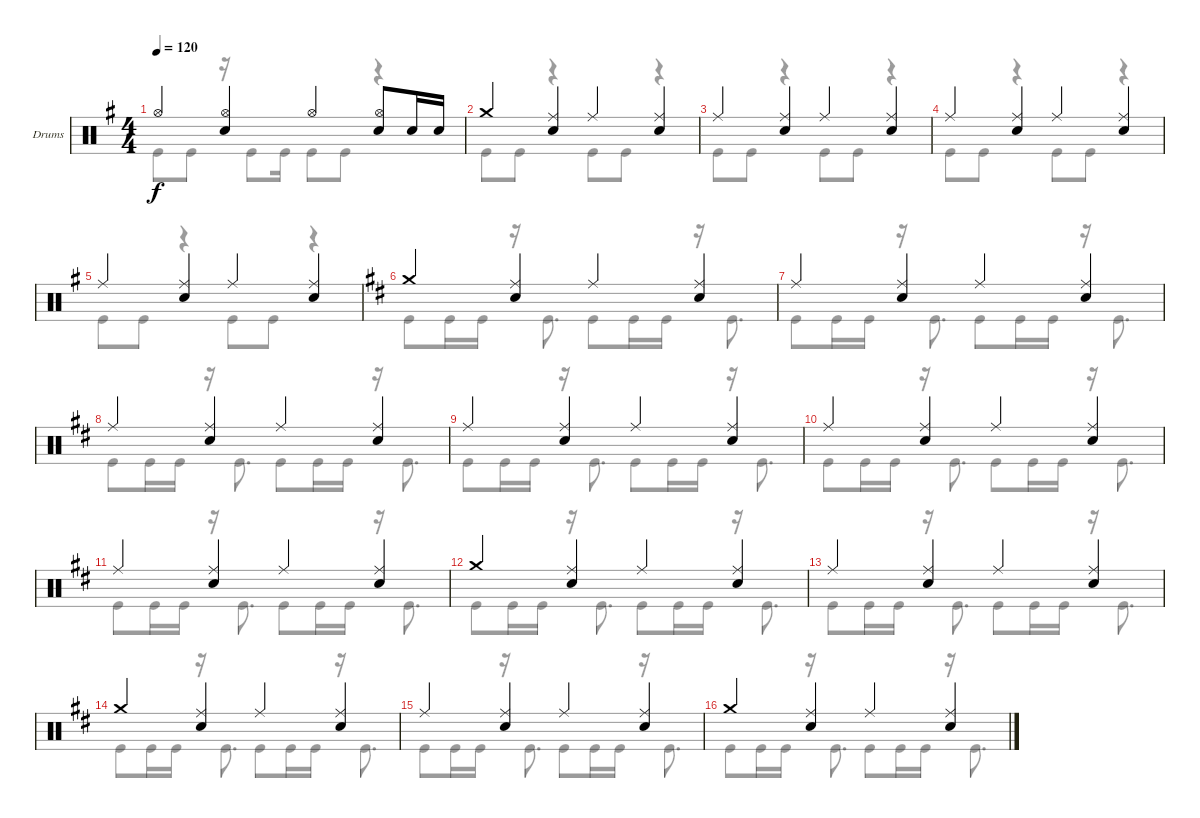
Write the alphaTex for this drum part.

\bracketExtendMode groupsimilarinstruments
\firstSystemTrackNameOrientation horizontal
\otherSystemsTrackNameOrientation horizontal
\track ("Drumkit" "Drums") {mute instrument percussion}
\staff {score}
\articulation defaults
\voice
\ts (4 4)
\tempo 120
\clef neutral
\ks eminor "Hi-Hat (open)".4{dy f}
("Hi-Hat (open)" "Snare (hit) 2").4 "Hi-Hat (open)".4 ("Hi-Hat (open)" "Snare (hit) 2").8 "Snare (hit) 2".16 "Snare (hit) 2".16 |
"Crash medium (hit)".4 ("Ride (middle)" "Snare (hit) 2").4 "Ride (middle)".4 ("Ride (middle)" "Snare (hit) 2").4 |
"Ride (middle)".4 ("Ride (middle)" "Snare (hit) 2").4 "Ride (middle)".4 ("Ride (middle)" "Snare (hit) 2").4 |
"Ride (middle)".4 ("Ride (middle)" "Snare (hit) 2").4 "Ride (middle)".4 ("Ride (middle)" "Snare (hit) 2").4 |
"Ride (middle)".4 ("Ride (middle)" "Snare (hit) 2").4 "Ride (middle)".4 ("Ride (middle)" "Snare (hit) 2").4 |
\ks bminor "Crash medium (hit)".4
("Ride (middle)" "Snare (hit) 2").4 "Ride (middle)".4 ("Ride (middle)" "Snare (hit) 2").4 |
"Ride (middle)".4 ("Ride (middle)" "Snare (hit) 2").4 "Ride (middle)".4 ("Ride (middle)" "Snare (hit) 2").4 |
"Ride (middle)".4 ("Ride (middle)" "Snare (hit) 2").4 "Ride (middle)".4 ("Ride (middle)" "Snare (hit) 2").4 |
"Ride (middle)".4 ("Ride (middle)" "Snare (hit) 2").4 "Ride (middle)".4 ("Ride (middle)" "Snare (hit) 2").4 |
"Ride (middle)".4 ("Ride (middle)" "Snare (hit) 2").4 "Ride (middle)".4 ("Ride (middle)" "Snare (hit) 2").4 |
"Ride (middle)".4 ("Ride (middle)" "Snare (hit) 2").4 "Ride (middle)".4 ("Ride (middle)" "Snare (hit) 2").4 |
"Crash medium (hit)".4 ("Ride (middle)" "Snare (hit) 2").4 "Ride (middle)".4 ("Ride (middle)" "Snare (hit) 2").4 |
"Ride (middle)".4 ("Ride (middle)" "Snare (hit) 2").4 "Ride (middle)".4 ("Ride (middle)" "Snare (hit) 2").4 |
"Crash medium (hit)".4 ("Ride (middle)" "Snare (hit) 2").4 "Ride (middle)".4 ("Ride (middle)" "Snare (hit) 2").4 |
"Ride (middle)".4 ("Ride (middle)" "Snare (hit) 2").4 "Ride (middle)".4 ("Ride (middle)" "Snare (hit) 2").4 |
"Crash medium (hit)".4 ("Ride (middle)" "Snare (hit) 2").4 "Ride (middle)".4 ("Ride (middle)" "Snare (hit) 2").4
\voice
\clef neutral
\ottava regular
\simile none
\ks eminor "Kick (hit)".8{dy f} "Kick (hit)".8
r.16 "Kick (hit)".8 "Kick (hit)".16 "Kick (hit)".8 "Kick (hit)".8 r.4 |
"Kick (hit)".8 "Kick (hit)".8 r.4 "Kick (hit)".8 "Kick (hit)".8 r.4 |
"Kick (hit)".8 "Kick (hit)".8 r.4 "Kick (hit)".8 "Kick (hit)".8 r.4 |
"Kick (hit)".8 "Kick (hit)".8 r.4 "Kick (hit)".8 "Kick (hit)".8 r.4 |
"Kick (hit)".8 "Kick (hit)".8 r.4 "Kick (hit)".8 "Kick (hit)".8 r.4 |
\ks bminor "Kick (hit)".8 "Kick (hit)".16 "Kick (hit)".16
r.16 "Kick (hit)".8{d} "Kick (hit)".8 "Kick (hit)".16 "Kick (hit)".16 r.16 "Kick (hit)".8{d} |
"Kick (hit)".8 "Kick (hit)".16 "Kick (hit)".16 r.16 "Kick (hit)".8{d} "Kick (hit)".8 "Kick (hit)".16 "Kick (hit)".16 r.16 "Kick (hit)".8{d} |
"Kick (hit)".8 "Kick (hit)".16 "Kick (hit)".16 r.16 "Kick (hit)".8{d} "Kick (hit)".8 "Kick (hit)".16 "Kick (hit)".16 r.16 "Kick (hit)".8{d} |
"Kick (hit)".8 "Kick (hit)".16 "Kick (hit)".16 r.16 "Kick (hit)".8{d} "Kick (hit)".8 "Kick (hit)".16 "Kick (hit)".16 r.16 "Kick (hit)".8{d} |
"Kick (hit)".8 "Kick (hit)".16 "Kick (hit)".16 r.16 "Kick (hit)".8{d} "Kick (hit)".8 "Kick (hit)".16 "Kick (hit)".16 r.16 "Kick (hit)".8{d} |
"Kick (hit)".8 "Kick (hit)".16 "Kick (hit)".16 r.16 "Kick (hit)".8{d} "Kick (hit)".8 "Kick (hit)".16 "Kick (hit)".16 r.16 "Kick (hit)".8{d} |
"Kick (hit)".8 "Kick (hit)".16 "Kick (hit)".16 r.16 "Kick (hit)".8{d} "Kick (hit)".8 "Kick (hit)".16 "Kick (hit)".16 r.16 "Kick (hit)".8{d} |
"Kick (hit)".8 "Kick (hit)".16 "Kick (hit)".16 r.16 "Kick (hit)".8{d} "Kick (hit)".8 "Kick (hit)".16 "Kick (hit)".16 r.16 "Kick (hit)".8{d} |
"Kick (hit)".8 "Kick (hit)".16 "Kick (hit)".16 r.16 "Kick (hit)".8{d} "Kick (hit)".8 "Kick (hit)".16 "Kick (hit)".16 r.16 "Kick (hit)".8{d} |
"Kick (hit)".8 "Kick (hit)".16 "Kick (hit)".16 r.16 "Kick (hit)".8{d} "Kick (hit)".8 "Kick (hit)".16 "Kick (hit)".16 r.16 "Kick (hit)".8{d} |
"Kick (hit)".8 "Kick (hit)".16 "Kick (hit)".16 r.16 "Kick (hit)".8{d} "Kick (hit)".8 "Kick (hit)".16 "Kick (hit)".16 r.16 "Kick (hit)".8{d}
